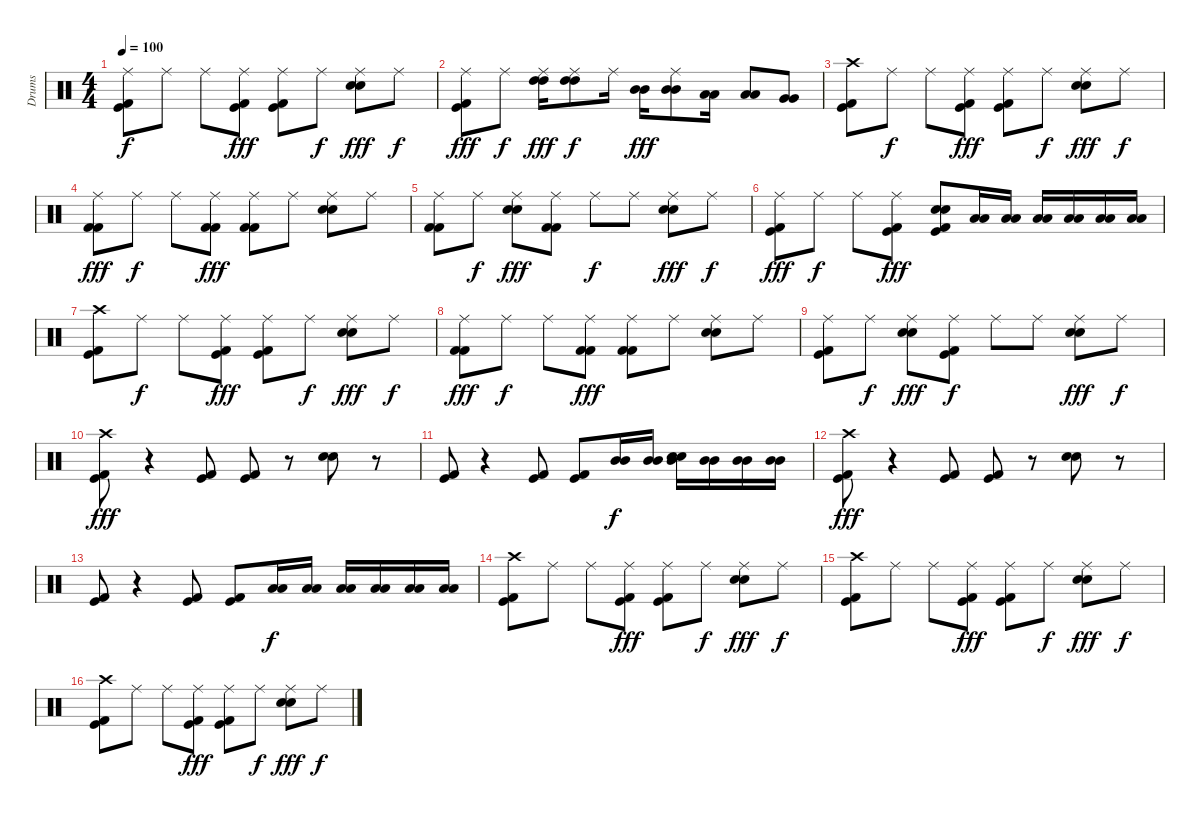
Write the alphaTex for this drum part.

\track ("Drums" "Drums") {instrument percussion}
\staff {score}
\articulation defaults
\ts (4 4)
\tempo 100
\clef neutral
\ks c
("Ride (middle)" "Kick (hit) 2" "Kick (hit)").8{dy f} "Ride (middle)".8 "Ride (middle)".8 ("Ride (middle)" "Kick (hit) 2" "Kick (hit)").8{dy fff} ("Ride (middle)" "Kick (hit) 2" "Kick (hit)").8 "Ride (middle)".8{dy f} ("Ride (middle)" "Electric Snare (hit)" "Snare (hit) 2").8{dy fff} "Ride (middle)".8{dy f} |
("Ride (middle)" "Kick (hit) 2" "Kick (hit)").8{dy fff} "Ride (middle)".8{dy f} ("Ride (middle)" "High Tom (hit)" "High Tom (hit)").16{dy fff} ("Ride (middle)" "High Tom (hit)" "High Tom (hit)").8{dy f} "Ride (middle)".16 ("Mid Tom (hit)" "Mid Tom (hit)").16{dy fff} ("Ride (middle)" "Mid Tom (hit)" "Mid Tom (hit)").8 ("Low Tom (hit)" "Low Tom (hit)").16 ("Low Tom (hit)" "Low Tom (hit)").8 ("Very Low Tom (hit)" "Very Low Tom (hit)").8 |
("Crash high (hit)" "Kick (hit) 2" "Kick (hit)").8 "Ride (middle)".8{dy f} "Ride (middle)".8 ("Ride (middle)" "Kick (hit) 2" "Kick (hit)").8{dy fff} ("Ride (middle)" "Kick (hit) 2" "Kick (hit)").8 "Ride (middle)".8{dy f} ("Ride (middle)" "Electric Snare (hit)" "Electric Snare (hit)").8{dy fff} "Ride (middle)".8{dy f} |
("Ride (middle)" "Kick (hit) 2" "Kick (hit) 2").8{dy fff} "Ride (middle)".8{dy f} "Ride (middle)".8 ("Ride (middle)" "Kick (hit) 2" "Kick (hit) 2").8{dy fff} ("Ride (middle)" "Kick (hit) 2" "Kick (hit) 2").8 "Ride (middle)".8 ("Ride (middle)" "Electric Snare (hit)" "Electric Snare (hit)").8 "Ride (middle)".8 |
("Ride (middle)" "Kick (hit) 2" "Kick (hit) 2").8 "Ride (middle)".8{dy f} ("Ride (middle)" "Electric Snare (hit)" "Electric Snare (hit)").8{dy fff} ("Ride (middle)" "Kick (hit) 2" "Kick (hit) 2").8 "Ride (middle)".8{dy f} "Ride (middle)".8 ("Ride (middle)" "Electric Snare (hit)" "Electric Snare (hit)").8{dy fff} "Ride (middle)".8{dy f} |
("Ride (middle)" "Kick (hit) 2" "Kick (hit)").8{dy fff} "Ride (middle)".8{dy f} "Ride (middle)".8 ("Ride (middle)" "Kick (hit) 2" "Kick (hit)").8{dy fff} ("Electric Snare (hit)" "Snare (hit) 2" "Kick (hit) 2" "Kick (hit)").8 ("Low Tom (hit)" "Low Tom (hit)").16 ("Low Tom (hit)" "Low Tom (hit)").16 ("Low Tom (hit)" "Low Tom (hit)").16 ("Low Tom (hit)" "Low Tom (hit)").16 ("Low Tom (hit)" "Low Tom (hit)").16 ("Low Tom (hit)" "Low Tom (hit)").16 |
("Crash high (hit)" "Kick (hit) 2" "Kick (hit)").8 "Ride (middle)".8{dy f} "Ride (middle)".8 ("Ride (middle)" "Kick (hit) 2" "Kick (hit)").8{dy fff} ("Ride (middle)" "Kick (hit) 2" "Kick (hit)").8 "Ride (middle)".8{dy f} ("Ride (middle)" "Electric Snare (hit)" "Electric Snare (hit)").8{dy fff} "Ride (middle)".8{dy f} |
("Ride (middle)" "Kick (hit) 2" "Kick (hit) 2").8{dy fff} "Ride (middle)".8{dy f} "Ride (middle)".8 ("Ride (middle)" "Kick (hit) 2" "Kick (hit) 2").8{dy fff} ("Ride (middle)" "Kick (hit) 2" "Kick (hit) 2").8 "Ride (middle)".8 ("Ride (middle)" "Electric Snare (hit)" "Electric Snare (hit)").8 "Ride (middle)".8 |
("Ride (middle)" "Kick (hit) 2" "Kick (hit)").8 "Ride (middle)".8{dy f} ("Ride (middle)" "Electric Snare (hit)" "Snare (hit) 2").8{dy fff} ("Ride (middle)" "Kick (hit) 2" "Kick (hit)").8{dy f} "Ride (middle)".8 "Ride (middle)".8 ("Ride (middle)" "Electric Snare (hit)" "Snare (hit) 2").8{dy fff} "Ride (middle)".8{dy f} |
("Crash high (hit)" "Kick (hit) 2" "Kick (hit)").8{dy fff} r.4 ("Kick (hit) 2" "Kick (hit)").8 ("Kick (hit) 2" "Kick (hit)").8 r.8 ("Electric Snare (hit)" "Electric Snare (hit)").8 r.8 |
("Kick (hit) 2" "Kick (hit)").8 r.4 ("Kick (hit) 2" "Kick (hit)").8 ("Kick (hit) 2" "Kick (hit)").8 ("Mid Tom (hit)" "Mid Tom (hit)").16{dy f} ("Mid Tom (hit)" "Mid Tom (hit)").16 ("Mid Tom (hit)" "Electric Snare (hit)" "Snare (hit) 2").16 ("Mid Tom (hit)" "Mid Tom (hit)").16 ("Mid Tom (hit)" "Mid Tom (hit)").16 ("Mid Tom (hit)" "Mid Tom (hit)").16 |
("Crash high (hit)" "Kick (hit) 2" "Kick (hit)").8{dy fff} r.4 ("Kick (hit) 2" "Kick (hit)").8 ("Kick (hit) 2" "Kick (hit)").8 r.8 ("Electric Snare (hit)" "Electric Snare (hit)").8 r.8 |
("Kick (hit) 2" "Kick (hit)").8 r.4 ("Kick (hit) 2" "Kick (hit)").8 ("Kick (hit) 2" "Kick (hit)").8 ("Low Tom (hit)" "Low Tom (hit)").16{dy f} ("Low Tom (hit)" "Low Tom (hit)").16 ("Low Tom (hit)" "Low Tom (hit)").16 ("Low Tom (hit)" "Low Tom (hit)").16 ("Low Tom (hit)" "Low Tom (hit)").16 ("Low Tom (hit)" "Low Tom (hit)").16 |
("Crash high (hit)" "Kick (hit) 2" "Kick (hit)").8 "Ride (middle)".8 "Ride (middle)".8 ("Ride (middle)" "Kick (hit) 2" "Kick (hit)").8{dy fff} ("Ride (middle)" "Kick (hit) 2" "Kick (hit)").8 "Ride (middle)".8{dy f} ("Ride (middle)" "Electric Snare (hit)" "Snare (hit) 2").8{dy fff} "Ride (middle)".8{dy f} |
("Crash high (hit)" "Kick (hit) 2" "Kick (hit)").8 "Ride (middle)".8 "Ride (middle)".8 ("Ride (middle)" "Kick (hit) 2" "Kick (hit)").8{dy fff} ("Ride (middle)" "Kick (hit) 2" "Kick (hit)").8 "Ride (middle)".8{dy f} ("Ride (middle)" "Electric Snare (hit)" "Snare (hit) 2").8{dy fff} "Ride (middle)".8{dy f} |
("Crash high (hit)" "Kick (hit) 2" "Kick (hit)").8 "Ride (middle)".8 "Ride (middle)".8 ("Ride (middle)" "Kick (hit) 2" "Kick (hit)").8{dy fff} ("Ride (middle)" "Kick (hit) 2" "Kick (hit)").8 "Ride (middle)".8{dy f} ("Ride (middle)" "Electric Snare (hit)" "Snare (hit) 2").8{dy fff} "Ride (middle)".8{dy f}
